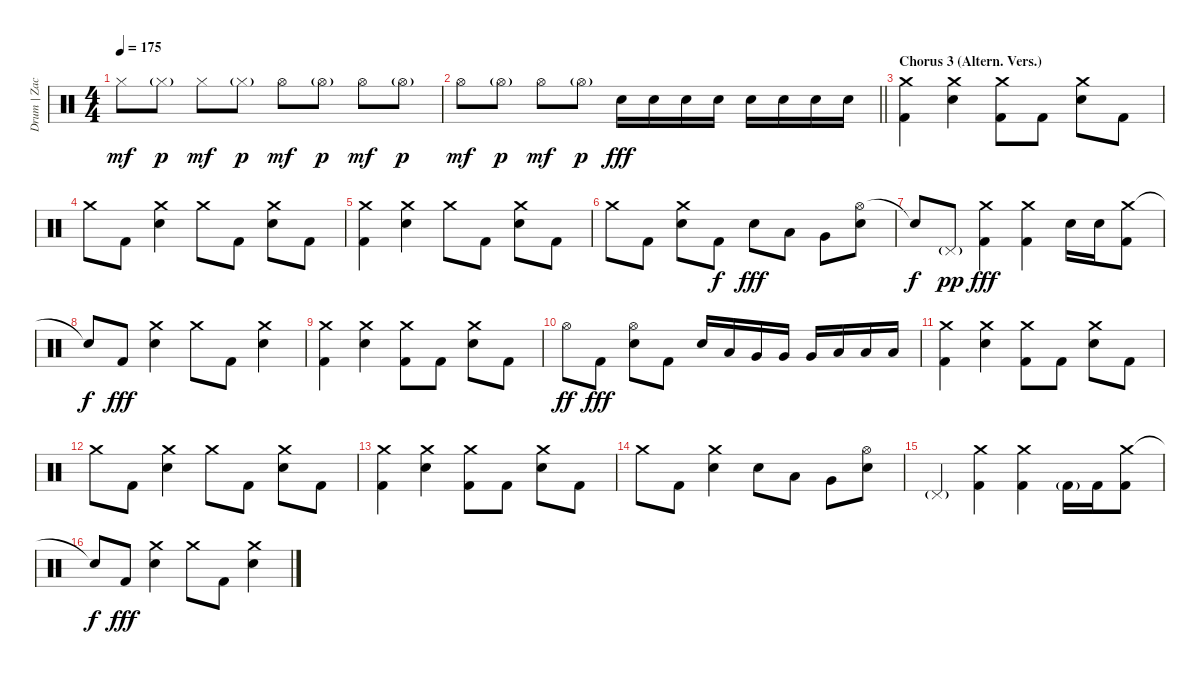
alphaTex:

\track ("Drum | Zac" "Drum | Zac") {instrument percussion}
\staff {score}
\articulation defaults
\ts (4 4)
\tempo 175
\clef neutral
\ks c "Hi-Hat (closed)".8{dy mf} "Hi-Hat (closed)"{g}.8{dy p} "Hi-Hat (closed)".8{dy mf} "Hi-Hat (closed)"{g}.8{dy p} "Hi-Hat (open)".8{dy mf} "Hi-Hat (open)"{g}.8{dy p} "Hi-Hat (open)".8{dy mf} "Hi-Hat (open)"{g}.8{dy p}
|
\barLineRight lightlight "Hi-Hat (open)".8{dy mf} "Hi-Hat (open)"{g}.8{dy p} "Hi-Hat (open)".8{dy mf} "Hi-Hat (open)"{g}.8{dy p} "Electric Snare (hit)".16{dy fff} "Electric Snare (hit)".16 "Electric Snare (hit)".16 "Electric Snare (hit)".16 "Electric Snare (hit)".16 "Electric Snare (hit)".16 "Electric Snare (hit)".16 "Electric Snare (hit)".16
|
\section ("" "Chorus 3 (Altern. Vers.)")
("Crash medium (hit)" "Kick (hit) 2").4 ("Crash medium (hit)" "Electric Snare (hit)").4 ("Crash medium (hit)" "Kick (hit) 2").8 "Kick (hit) 2".8 ("Crash medium (hit)" "Electric Snare (hit)").8 "Kick (hit) 2".8 |
"Crash medium (hit)".8 "Kick (hit) 2".8 ("Crash medium (hit)" "Electric Snare (hit)").4 "Crash medium (hit)".8 "Kick (hit) 2".8 ("Crash medium (hit)" "Electric Snare (hit)").8 "Kick (hit) 2".8 |
("Crash medium (hit)" "Kick (hit) 2").4 ("Crash medium (hit)" "Electric Snare (hit)").4 "Crash medium (hit)".8 "Kick (hit) 2".8 ("Crash medium (hit)" "Electric Snare (hit)").8 "Kick (hit) 2".8 |
"Crash medium (hit)".8 "Kick (hit) 2".8 ("Crash medium (hit)" "Electric Snare (hit)").8 "Kick (hit) 2".8{dy f} "Electric Snare (hit)".8{dy fff} "Low Floor Tom (hit)".8 "Very Low Tom (hit)".8 ("Hi-Hat (open)" "Electric Snare (hit)").8 |
"Snare (hit)"{t}.8{dy f} "Pedal Hi-Hat (hit)"{g}.8{dy pp} ("Crash medium (hit)" "Kick (hit) 2").4{dy fff} ("Crash medium (hit)" "Kick (hit) 2").4 "Electric Snare (hit)".16 "Electric Snare (hit)".16 ("Crash medium (hit)" "Kick (hit) 2").8 |
"Snare (hit)"{t}.8{dy f} "Kick (hit) 2".8{dy fff} ("Crash medium (hit)" "Electric Snare (hit)").4 "Crash medium (hit)".8 "Kick (hit) 2".8 ("Crash medium (hit)" "Electric Snare (hit)").4 |
("Crash medium (hit)" "Kick (hit) 2").4 ("Crash medium (hit)" "Electric Snare (hit)").4 ("Crash medium (hit)" "Kick (hit) 2").8 "Kick (hit) 2".8 ("Crash medium (hit)" "Electric Snare (hit)").8 "Kick (hit) 2".8 |
"Hi-Hat (open)".8{dy ff} "Kick (hit) 2".8{dy fff} ("Hi-Hat (open)" "Electric Snare (hit)").8 "Kick (hit) 2".8 "Electric Snare (hit)".16 "Low Tom (hit)".16 "Very Low Tom (hit)".16 "Very Low Tom (hit)".16 "Very Low Tom (hit)".16 "Low Floor Tom (hit)".16 "Low Floor Tom (hit)".16 "Low Floor Tom (hit)".16 |
("Crash medium (hit)" "Kick (hit) 2").4 ("Crash medium (hit)" "Electric Snare (hit)").4 ("Crash medium (hit)" "Kick (hit) 2").8 "Kick (hit) 2".8 ("Crash medium (hit)" "Electric Snare (hit)").8 "Kick (hit) 2".8 |
"Crash medium (hit)".8 "Kick (hit) 2".8 ("Crash medium (hit)" "Electric Snare (hit)").4 "Crash medium (hit)".8 "Kick (hit) 2".8 ("Crash medium (hit)" "Electric Snare (hit)").8 "Kick (hit) 2".8 |
("Crash medium (hit)" "Kick (hit) 2").4 ("Crash medium (hit)" "Electric Snare (hit)").4 ("Crash medium (hit)" "Kick (hit) 2").8 "Kick (hit) 2".8 ("Crash medium (hit)" "Electric Snare (hit)").8 "Kick (hit) 2".8 |
"Crash medium (hit)".8 "Kick (hit) 2".8 ("Crash medium (hit)" "Electric Snare (hit)").4 "Electric Snare (hit)".8 "Low Floor Tom (hit)".8 "Very Low Tom (hit)".8 ("Hi-Hat (open)" "Electric Snare (hit)").8 |
"Pedal Hi-Hat (hit)"{g}.4 ("Crash medium (hit)" "Kick (hit) 2").4 ("Crash medium (hit)" "Kick (hit) 2").4 "Kick (hit) 2"{g}.16 "Kick (hit) 2".16 ("Crash medium (hit)" "Kick (hit) 2").8 |
"Snare (hit)"{t}.8{dy f} "Kick (hit) 2".8{dy fff} ("Crash medium (hit)" "Electric Snare (hit)").4 "Crash medium (hit)".8 "Kick (hit) 2".8 ("Crash medium (hit)" "Electric Snare (hit)").4
